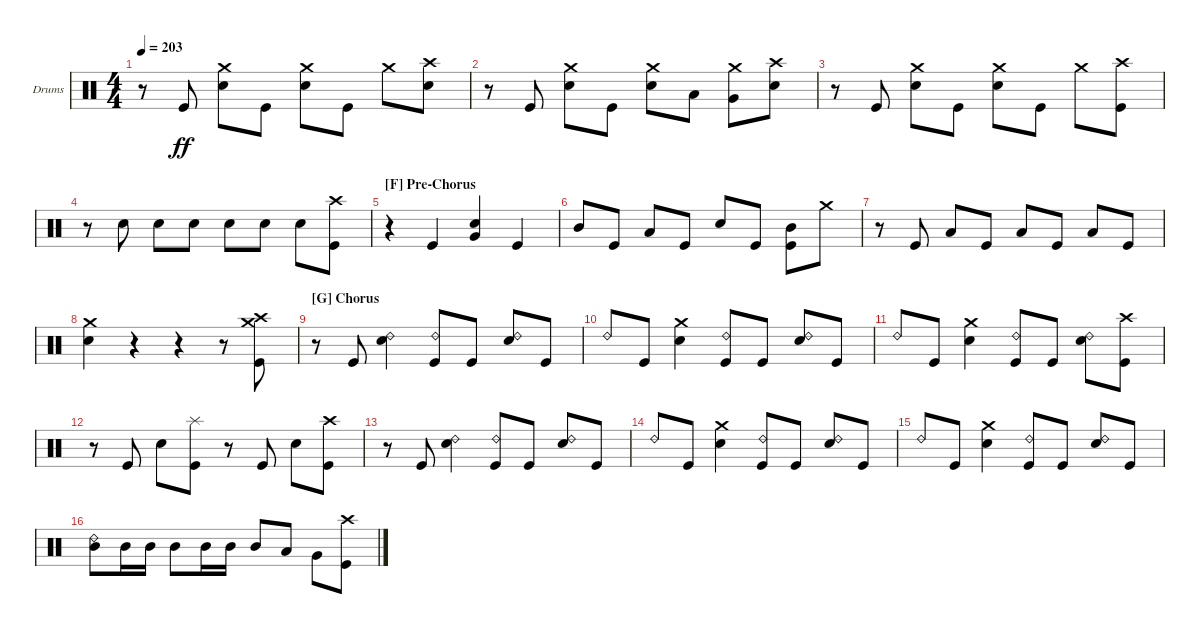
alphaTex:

\defaultSystemsLayout 4
\bracketExtendMode groupsimilarinstruments
\firstSystemTrackNameOrientation horizontal
\otherSystemsTrackNameOrientation horizontal
\track ("Brandon Barnes - Drums" "Drums") {instrument percussion}
\staff {score}
\articulation defaults
\ts (4 4)
\tempo 203
\clef neutral
\ks c
r.8{dy ff} "Kick (hit)".8 ("Snare (hit) 2" "Crash medium (hit)").8 "Kick (hit)".8 ("Snare (hit) 2" "Crash medium (hit)").8 "Kick (hit)".8 "Crash medium (hit)".8 ("Snare (hit) 2" "Crash high (hit)").8 |
r.8 "Kick (hit)".8 ("Snare (hit) 2" "Crash medium (hit)").8 "Kick (hit)".8 ("Snare (hit) 2" "Crash medium (hit)").8 "Low Tom (hit)".8 ("Crash medium (hit)" "Very Low Tom (hit)").8 ("Snare (hit) 2" "Crash high (hit)").8 |
r.8 "Kick (hit)".8 ("Snare (hit) 2" "Crash medium (hit)").8 "Kick (hit)".8 ("Snare (hit) 2" "Crash medium (hit)").8 "Kick (hit)".8 "Crash medium (hit)".8 ("Crash high (hit)" "Kick (hit)").8 |
r.8 "Snare (hit) 2".8 "Snare (hit) 2".8 "Snare (hit) 2".8 "Snare (hit) 2".8 "Snare (hit) 2".8 "Snare (hit) 2".8 ("Crash high (hit)" "Kick (hit)").8 |
\section ("F" "Pre-Chorus")
r.4 "Kick (hit)".4 ("Snare (hit) 2" "Very Low Tom (hit)").4 "Kick (hit)".4 |
"Mid Tom (hit)".8 "Kick (hit)".8 "Low Tom (hit)".8 "Kick (hit)".8 "Snare (hit) 2".8 "Kick (hit)".8 ("Mid Tom (hit)" "Kick (hit)").8 "Crash medium (hit)".8 |
r.8 "Kick (hit)".8 "Low Tom (hit)".8 "Kick (hit)".8 "Low Tom (hit)".8 "Kick (hit)".8 "Low Tom (hit)".8 "Kick (hit)".8 |
("Snare (hit) 2" "Crash medium (hit)").4 r.4 r.4 r.8 ("Kick (hit)" "Crash high (hit)" "Crash medium (hit)").8 |
\section ("G" "Chorus")
r.8 "Kick (hit)".8 ("Snare (hit) 2" "Ride (bell) 2").4 ("Ride (bell) 2" "Kick (hit)").8 "Kick (hit)".8 ("Snare (hit) 2" "Ride (bell) 2").8 "Kick (hit)".8 |
"Ride (bell) 2".8 "Kick (hit)".8 ("Snare (hit) 2" "Crash medium (hit)").4 ("Ride (bell) 2" "Kick (hit)").8 "Kick (hit)".8 ("Snare (hit) 2" "Ride (bell) 2").8 "Kick (hit)".8 |
"Ride (bell) 2".8 "Kick (hit)".8 ("Snare (hit) 2" "Crash medium (hit)").4 ("Ride (bell) 2" "Kick (hit)").8 "Kick (hit)".8 ("Snare (hit) 2" "Ride (bell) 2").8 ("Kick (hit)" "Crash high (hit)").8 |
r.8 "Kick (hit)".8 "Snare (hit) 2".8 ("Kick (hit)" "Splash (hit)").8 r.8 "Kick (hit)".8 "Snare (hit) 2".8 ("Kick (hit)" "Crash high (hit)").8 |
r.8 "Kick (hit)".8 ("Snare (hit) 2" "Ride (bell) 2").4 ("Ride (bell) 2" "Kick (hit)").8 "Kick (hit)".8 ("Snare (hit) 2" "Ride (bell) 2").8 "Kick (hit)".8 |
"Ride (bell) 2".8 "Kick (hit)".8 ("Snare (hit) 2" "Crash medium (hit)").4 ("Ride (bell) 2" "Kick (hit)").8 "Kick (hit)".8 ("Snare (hit) 2" "Ride (bell) 2").8 "Kick (hit)".8 |
"Ride (bell) 2".8 "Kick (hit)".8 ("Snare (hit) 2" "Crash medium (hit)").4 ("Ride (bell) 2" "Kick (hit)").8 "Kick (hit)".8 ("Snare (hit) 2" "Ride (bell) 2").8 "Kick (hit)".8 |
("Mid Tom (hit)" "Ride (bell) 2").8 "Mid Tom (hit)".16 "Mid Tom (hit)".16 "Mid Tom (hit)".8 "Mid Tom (hit)".16 "Mid Tom (hit)".16 "Mid Tom (hit)".8 "Low Tom (hit)".8 "Very Low Tom (hit)".8 ("Kick (hit)" "Crash high (hit)").8
